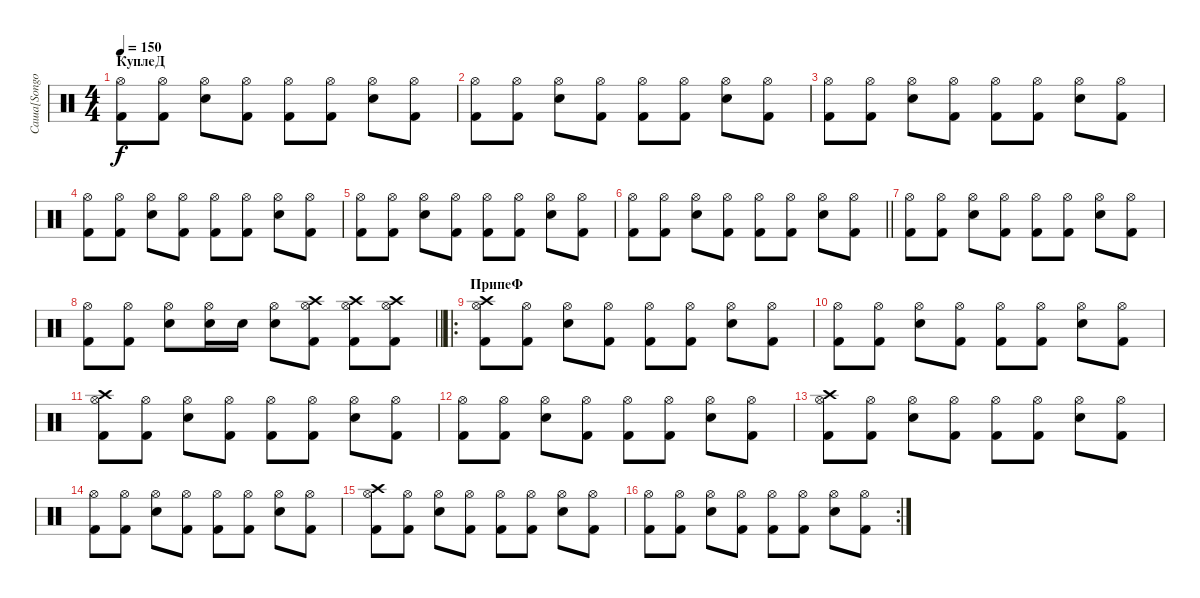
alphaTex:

\track ("Саша[Songo]" "Саша[Songo") {instrument percussion}
\staff {score}
\articulation defaults
\ts (4 4)
\section ("" "КуплеД")
\tempo 150
\clef neutral
\ks c
("Hi-Hat (open)" "Kick (hit) 2").8{dy f} ("Hi-Hat (open)" "Kick (hit) 2").8 ("Hi-Hat (open)" "Snare (hit) 2").8 ("Hi-Hat (open)" "Kick (hit) 2").8 ("Hi-Hat (open)" "Kick (hit) 2").8 ("Hi-Hat (open)" "Kick (hit) 2").8 ("Hi-Hat (open)" "Snare (hit) 2").8 ("Hi-Hat (open)" "Kick (hit) 2").8 |
("Hi-Hat (open)" "Kick (hit) 2").8 ("Hi-Hat (open)" "Kick (hit) 2").8 ("Hi-Hat (open)" "Snare (hit) 2").8 ("Hi-Hat (open)" "Kick (hit) 2").8 ("Hi-Hat (open)" "Kick (hit) 2").8 ("Hi-Hat (open)" "Kick (hit) 2").8 ("Hi-Hat (open)" "Snare (hit) 2").8 ("Hi-Hat (open)" "Kick (hit) 2").8 |
("Hi-Hat (open)" "Kick (hit) 2").8 ("Hi-Hat (open)" "Kick (hit) 2").8 ("Hi-Hat (open)" "Snare (hit) 2").8 ("Hi-Hat (open)" "Kick (hit) 2").8 ("Hi-Hat (open)" "Kick (hit) 2").8 ("Hi-Hat (open)" "Kick (hit) 2").8 ("Hi-Hat (open)" "Snare (hit) 2").8 ("Hi-Hat (open)" "Kick (hit) 2").8 |
("Hi-Hat (open)" "Kick (hit) 2").8 ("Hi-Hat (open)" "Kick (hit) 2").8 ("Hi-Hat (open)" "Snare (hit) 2").8 ("Hi-Hat (open)" "Kick (hit) 2").8 ("Hi-Hat (open)" "Kick (hit) 2").8 ("Hi-Hat (open)" "Kick (hit) 2").8 ("Hi-Hat (open)" "Snare (hit) 2").8 ("Hi-Hat (open)" "Kick (hit) 2").8 |
("Hi-Hat (open)" "Kick (hit) 2").8 ("Hi-Hat (open)" "Kick (hit) 2").8 ("Hi-Hat (open)" "Snare (hit) 2").8 ("Hi-Hat (open)" "Kick (hit) 2").8 ("Hi-Hat (open)" "Kick (hit) 2").8 ("Hi-Hat (open)" "Kick (hit) 2").8 ("Hi-Hat (open)" "Snare (hit) 2").8 ("Hi-Hat (open)" "Kick (hit) 2").8 |
\barLineRight lightlight
("Hi-Hat (open)" "Kick (hit) 2").8 ("Hi-Hat (open)" "Kick (hit) 2").8 ("Hi-Hat (open)" "Snare (hit) 2").8 ("Hi-Hat (open)" "Kick (hit) 2").8 ("Hi-Hat (open)" "Kick (hit) 2").8 ("Hi-Hat (open)" "Kick (hit) 2").8 ("Hi-Hat (open)" "Snare (hit) 2").8 ("Hi-Hat (open)" "Kick (hit) 2").8 |
("Hi-Hat (open)" "Kick (hit) 2").8 ("Hi-Hat (open)" "Kick (hit) 2").8 ("Hi-Hat (open)" "Snare (hit) 2").8 ("Hi-Hat (open)" "Kick (hit) 2").8 ("Hi-Hat (open)" "Kick (hit) 2").8 ("Hi-Hat (open)" "Kick (hit) 2").8 ("Hi-Hat (open)" "Snare (hit) 2").8 ("Hi-Hat (open)" "Kick (hit) 2").8 |
\barLineRight lightlight
("Hi-Hat (open)" "Kick (hit) 2").8 ("Hi-Hat (open)" "Kick (hit) 2").8 ("Hi-Hat (open)" "Electric Snare (hit)").8 ("Hi-Hat (open)" "Electric Snare (hit)").16 "Electric Snare (hit)".16 ("Hi-Hat (open)" "Electric Snare (hit)").8 ("Crash high (hit)" "Hi-Hat (open)" "Kick (hit) 2").8 ("Crash high (hit)" "Hi-Hat (open)" "Kick (hit) 2").8 ("Crash high (hit)" "Hi-Hat (open)" "Kick (hit) 2").8 |
\ro
\section ("" "ПрипеФ")
("Crash high (hit)" "Hi-Hat (open)" "Kick (hit) 2").8 ("Hi-Hat (open)" "Kick (hit) 2").8 ("Hi-Hat (open)" "Snare (hit) 2").8 ("Hi-Hat (open)" "Kick (hit) 2").8 ("Hi-Hat (open)" "Kick (hit) 2").8 ("Hi-Hat (open)" "Kick (hit) 2").8 ("Hi-Hat (open)" "Snare (hit) 2").8 ("Hi-Hat (open)" "Kick (hit) 2").8 |
("Hi-Hat (open)" "Kick (hit) 2").8 ("Hi-Hat (open)" "Kick (hit) 2").8 ("Hi-Hat (open)" "Snare (hit) 2").8 ("Hi-Hat (open)" "Kick (hit) 2").8 ("Hi-Hat (open)" "Kick (hit) 2").8 ("Hi-Hat (open)" "Kick (hit) 2").8 ("Hi-Hat (open)" "Snare (hit) 2").8 ("Hi-Hat (open)" "Kick (hit) 2").8 |
("Crash high (hit)" "Hi-Hat (open)" "Kick (hit) 2").8 ("Hi-Hat (open)" "Kick (hit) 2").8 ("Hi-Hat (open)" "Snare (hit) 2").8 ("Hi-Hat (open)" "Kick (hit) 2").8 ("Hi-Hat (open)" "Kick (hit) 2").8 ("Hi-Hat (open)" "Kick (hit) 2").8 ("Hi-Hat (open)" "Snare (hit) 2").8 ("Hi-Hat (open)" "Kick (hit) 2").8 |
("Hi-Hat (open)" "Kick (hit) 2").8 ("Hi-Hat (open)" "Kick (hit) 2").8 ("Hi-Hat (open)" "Snare (hit) 2").8 ("Hi-Hat (open)" "Kick (hit) 2").8 ("Hi-Hat (open)" "Kick (hit) 2").8 ("Hi-Hat (open)" "Kick (hit) 2").8 ("Hi-Hat (open)" "Snare (hit) 2").8 ("Hi-Hat (open)" "Kick (hit) 2").8 |
("Crash high (hit)" "Hi-Hat (open)" "Kick (hit) 2").8 ("Hi-Hat (open)" "Kick (hit) 2").8 ("Hi-Hat (open)" "Snare (hit) 2").8 ("Hi-Hat (open)" "Kick (hit) 2").8 ("Hi-Hat (open)" "Kick (hit) 2").8 ("Hi-Hat (open)" "Kick (hit) 2").8 ("Hi-Hat (open)" "Snare (hit) 2").8 ("Hi-Hat (open)" "Kick (hit) 2").8 |
("Hi-Hat (open)" "Kick (hit) 2").8 ("Hi-Hat (open)" "Kick (hit) 2").8 ("Hi-Hat (open)" "Snare (hit) 2").8 ("Hi-Hat (open)" "Kick (hit) 2").8 ("Hi-Hat (open)" "Kick (hit) 2").8 ("Hi-Hat (open)" "Kick (hit) 2").8 ("Hi-Hat (open)" "Snare (hit) 2").8 ("Hi-Hat (open)" "Kick (hit) 2").8 |
("Crash high (hit)" "Hi-Hat (open)" "Kick (hit) 2").8 ("Hi-Hat (open)" "Kick (hit) 2").8 ("Hi-Hat (open)" "Snare (hit) 2").8 ("Hi-Hat (open)" "Kick (hit) 2").8 ("Hi-Hat (open)" "Kick (hit) 2").8 ("Hi-Hat (open)" "Kick (hit) 2").8 ("Hi-Hat (open)" "Snare (hit) 2").8 ("Hi-Hat (open)" "Kick (hit) 2").8 |
\rc 2
("Hi-Hat (open)" "Kick (hit) 2").8 ("Hi-Hat (open)" "Kick (hit) 2").8 ("Hi-Hat (open)" "Snare (hit) 2").8 ("Hi-Hat (open)" "Kick (hit) 2").8 ("Hi-Hat (open)" "Kick (hit) 2").8 ("Hi-Hat (open)" "Kick (hit) 2").8 ("Hi-Hat (open)" "Snare (hit) 2").8 ("Hi-Hat (open)" "Kick (hit) 2").8
